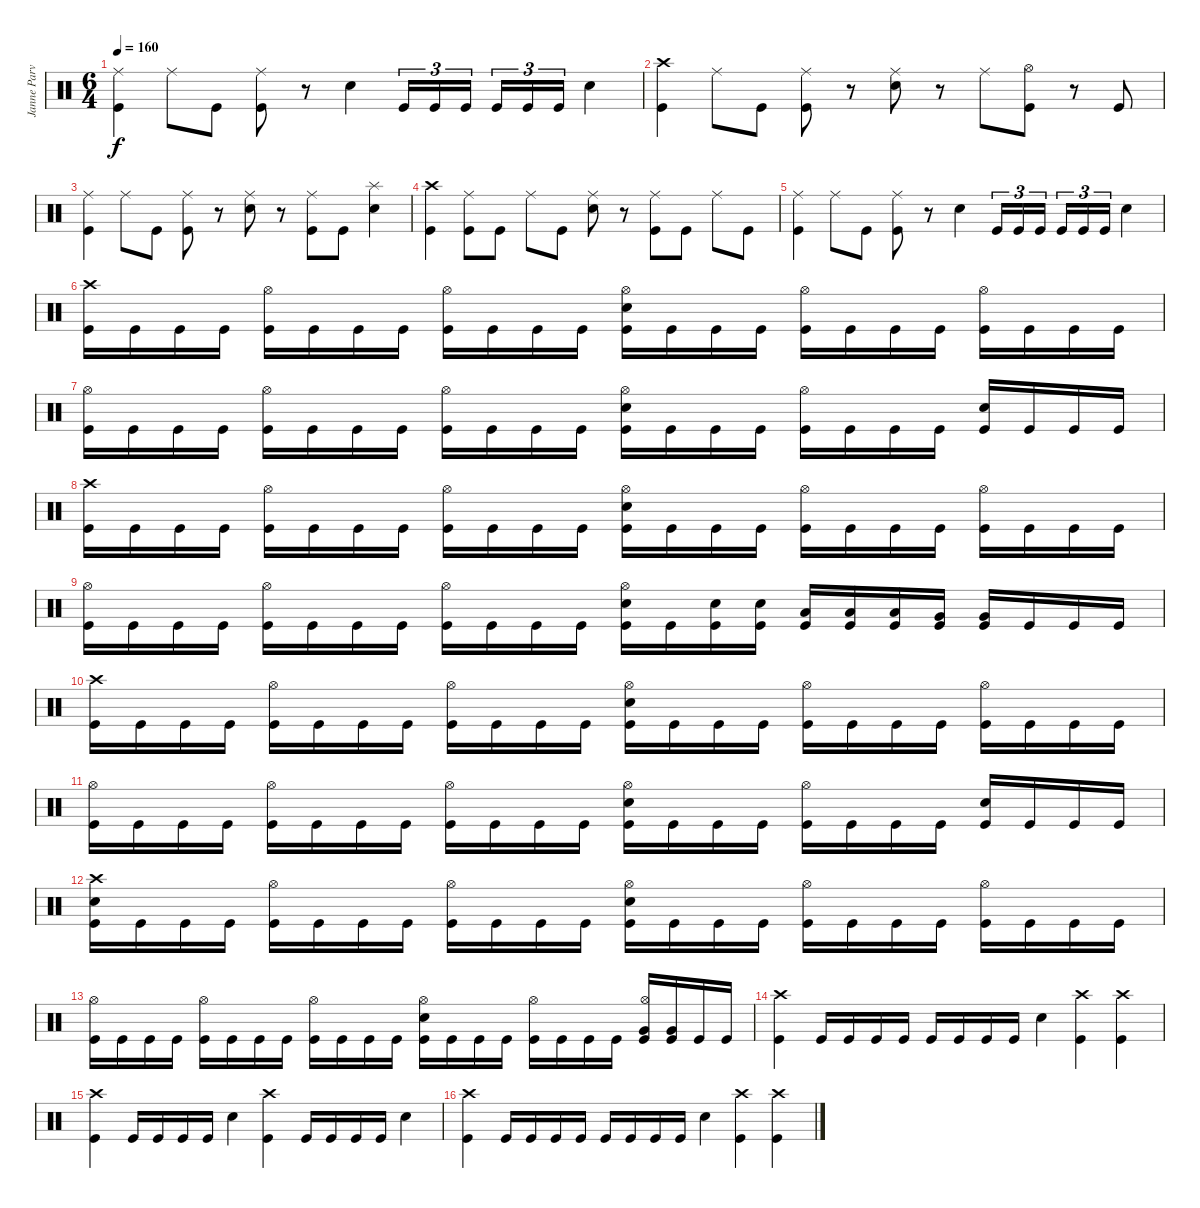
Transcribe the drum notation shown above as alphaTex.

\track ("Janne Parviainen" "Janne Parv") {instrument percussion}
\staff {score}
\articulation defaults
\ts (6 4)
\tempo 160
\clef neutral
\ks c
("Ride (middle)" "Kick (hit)").4{dy f} "Ride (middle)".8 "Kick (hit)".8 ("Ride (middle)" "Kick (hit)").8 r.8 "Electric Snare (hit)".4 "Kick (hit)".16{tu (3 2)} "Kick (hit)".16{tu (3 2)} "Kick (hit)".16{tu (3 2) beam splitsecondary} "Kick (hit)".16{tu (3 2)} "Kick (hit)".16{tu (3 2)} "Kick (hit)".16{tu (3 2)} "Electric Snare (hit)".4 |
("Crash high (hit)" "Kick (hit)").4 "Ride (middle)".8 "Kick (hit)".8 ("Ride (middle)" "Kick (hit)").8 r.8 ("Ride (middle)" "Electric Snare (hit)").8 r.8 "Ride (middle)".8 ("Hi-Hat (open)" "Kick (hit)").8 r.8 "Kick (hit)".8 |
("Ride (middle)" "Kick (hit)").4 "Ride (middle)".8 "Kick (hit)".8 ("Ride (middle)" "Kick (hit)").8 r.8 ("Ride (middle)" "Electric Snare (hit)").8 r.8 ("Ride (middle)" "Kick (hit)").8 "Kick (hit)".8 ("Splash (hit)" "Electric Snare (hit)").4 |
("Crash high (hit)" "Kick (hit)").4 ("Ride (middle)" "Kick (hit)").8 "Kick (hit)".8 "Ride (middle)".8 "Kick (hit)".8 ("Ride (middle)" "Electric Snare (hit)").8 r.8 ("Ride (middle)" "Kick (hit)").8 "Kick (hit)".8 "Ride (middle)".8 "Kick (hit)".8 |
("Ride (middle)" "Kick (hit)").4 "Ride (middle)".8 "Kick (hit)".8 ("Ride (middle)" "Kick (hit)").8 r.8 "Electric Snare (hit)".4 "Kick (hit)".16{tu (3 2)} "Kick (hit)".16{tu (3 2)} "Kick (hit)".16{tu (3 2) beam splitsecondary} "Kick (hit)".16{tu (3 2)} "Kick (hit)".16{tu (3 2)} "Kick (hit)".16{tu (3 2)} "Electric Snare (hit)".4 |
("Crash high (hit)" "Kick (hit)").16 "Kick (hit)".16 "Kick (hit)".16 "Kick (hit)".16 ("Hi-Hat (open)" "Kick (hit)").16 "Kick (hit)".16 "Kick (hit)".16 "Kick (hit)".16 ("Hi-Hat (open)" "Kick (hit)").16 "Kick (hit)".16 "Kick (hit)".16 "Kick (hit)".16 ("Hi-Hat (open)" "Electric Snare (hit)" "Kick (hit)").16 "Kick (hit)".16 "Kick (hit)".16 "Kick (hit)".16 ("Hi-Hat (open)" "Kick (hit)").16 "Kick (hit)".16 "Kick (hit)".16 "Kick (hit)".16 ("Hi-Hat (open)" "Kick (hit)").16 "Kick (hit)".16 "Kick (hit)".16 "Kick (hit)".16 |
("Hi-Hat (open)" "Kick (hit)").16 "Kick (hit)".16 "Kick (hit)".16 "Kick (hit)".16 ("Hi-Hat (open)" "Kick (hit)").16 "Kick (hit)".16 "Kick (hit)".16 "Kick (hit)".16 ("Hi-Hat (open)" "Kick (hit)").16 "Kick (hit)".16 "Kick (hit)".16 "Kick (hit)".16 ("Hi-Hat (open)" "Electric Snare (hit)" "Kick (hit)").16 "Kick (hit)".16 "Kick (hit)".16 "Kick (hit)".16 ("Hi-Hat (open)" "Kick (hit)").16 "Kick (hit)".16 "Kick (hit)".16 "Kick (hit)".16 ("Electric Snare (hit)" "Kick (hit)").16 "Kick (hit)".16 "Kick (hit)".16 "Kick (hit)".16 |
("Crash high (hit)" "Kick (hit)").16 "Kick (hit)".16 "Kick (hit)".16 "Kick (hit)".16 ("Hi-Hat (open)" "Kick (hit)").16 "Kick (hit)".16 "Kick (hit)".16 "Kick (hit)".16 ("Hi-Hat (open)" "Kick (hit)").16 "Kick (hit)".16 "Kick (hit)".16 "Kick (hit)".16 ("Hi-Hat (open)" "Electric Snare (hit)" "Kick (hit)").16 "Kick (hit)".16 "Kick (hit)".16 "Kick (hit)".16 ("Hi-Hat (open)" "Kick (hit)").16 "Kick (hit)".16 "Kick (hit)".16 "Kick (hit)".16 ("Hi-Hat (open)" "Kick (hit)").16 "Kick (hit)".16 "Kick (hit)".16 "Kick (hit)".16 |
("Hi-Hat (open)" "Kick (hit)").16 "Kick (hit)".16 "Kick (hit)".16 "Kick (hit)".16 ("Hi-Hat (open)" "Kick (hit)").16 "Kick (hit)".16 "Kick (hit)".16 "Kick (hit)".16 ("Hi-Hat (open)" "Kick (hit)").16 "Kick (hit)".16 "Kick (hit)".16 "Kick (hit)".16 ("Hi-Hat (open)" "Electric Snare (hit)" "Kick (hit)").16 "Kick (hit)".16 ("Electric Snare (hit)" "Kick (hit)").16 ("Electric Snare (hit)" "Kick (hit)").16 ("Low Tom (hit)" "Kick (hit)").16 ("Low Tom (hit)" "Kick (hit)").16 ("Low Tom (hit)" "Kick (hit)").16 ("Very Low Tom (hit)" "Kick (hit)").16 ("Very Low Tom (hit)" "Kick (hit)").16 "Kick (hit)".16 "Kick (hit)".16 "Kick (hit)".16 |
("Crash high (hit)" "Kick (hit)").16 "Kick (hit)".16 "Kick (hit)".16 "Kick (hit)".16 ("Hi-Hat (open)" "Kick (hit)").16 "Kick (hit)".16 "Kick (hit)".16 "Kick (hit)".16 ("Hi-Hat (open)" "Kick (hit)").16 "Kick (hit)".16 "Kick (hit)".16 "Kick (hit)".16 ("Hi-Hat (open)" "Electric Snare (hit)" "Kick (hit)").16 "Kick (hit)".16 "Kick (hit)".16 "Kick (hit)".16 ("Hi-Hat (open)" "Kick (hit)").16 "Kick (hit)".16 "Kick (hit)".16 "Kick (hit)".16 ("Hi-Hat (open)" "Kick (hit)").16 "Kick (hit)".16 "Kick (hit)".16 "Kick (hit)".16 |
("Hi-Hat (open)" "Kick (hit)").16 "Kick (hit)".16 "Kick (hit)".16 "Kick (hit)".16 ("Hi-Hat (open)" "Kick (hit)").16 "Kick (hit)".16 "Kick (hit)".16 "Kick (hit)".16 ("Hi-Hat (open)" "Kick (hit)").16 "Kick (hit)".16 "Kick (hit)".16 "Kick (hit)".16 ("Hi-Hat (open)" "Electric Snare (hit)" "Kick (hit)").16 "Kick (hit)".16 "Kick (hit)".16 "Kick (hit)".16 ("Hi-Hat (open)" "Kick (hit)").16 "Kick (hit)".16 "Kick (hit)".16 "Kick (hit)".16 ("Electric Snare (hit)" "Kick (hit)").16 "Kick (hit)".16 "Kick (hit)".16 "Kick (hit)".16 |
("Crash high (hit)" "Electric Snare (hit)" "Kick (hit)").16 "Kick (hit)".16 "Kick (hit)".16 "Kick (hit)".16 ("Hi-Hat (open)" "Kick (hit)").16 "Kick (hit)".16 "Kick (hit)".16 "Kick (hit)".16 ("Hi-Hat (open)" "Kick (hit)").16 "Kick (hit)".16 "Kick (hit)".16 "Kick (hit)".16 ("Hi-Hat (open)" "Electric Snare (hit)" "Kick (hit)").16 "Kick (hit)".16 "Kick (hit)".16 "Kick (hit)".16 ("Hi-Hat (open)" "Kick (hit)").16 "Kick (hit)".16 "Kick (hit)".16 "Kick (hit)".16 ("Hi-Hat (open)" "Kick (hit)").16 "Kick (hit)".16 "Kick (hit)".16 "Kick (hit)".16 |
("Hi-Hat (open)" "Kick (hit)").16 "Kick (hit)".16 "Kick (hit)".16 "Kick (hit)".16 ("Hi-Hat (open)" "Kick (hit)").16 "Kick (hit)".16 "Kick (hit)".16 "Kick (hit)".16 ("Hi-Hat (open)" "Kick (hit)").16 "Kick (hit)".16 "Kick (hit)".16 "Kick (hit)".16 ("Hi-Hat (open)" "Electric Snare (hit)" "Kick (hit)").16 "Kick (hit)".16 "Kick (hit)".16 "Kick (hit)".16 ("Hi-Hat (open)" "Kick (hit)").16 "Kick (hit)".16 "Kick (hit)".16 "Kick (hit)".16 ("Hi-Hat (open)" "Very Low Tom (hit)" "Kick (hit)").16 ("Very Low Tom (hit)" "Kick (hit)").16 "Kick (hit)".16 "Kick (hit)".16 |
("Crash high (hit)" "Kick (hit)").4 "Kick (hit)".16 "Kick (hit)".16 "Kick (hit)".16 "Kick (hit)".16 "Kick (hit)".16 "Kick (hit)".16 "Kick (hit)".16 "Kick (hit)".16 "Electric Snare (hit)".4 ("Crash high (hit)" "Kick (hit)").4 ("Crash high (hit)" "Kick (hit)").4 |
("Crash high (hit)" "Kick (hit)").4 "Kick (hit)".16 "Kick (hit)".16 "Kick (hit)".16 "Kick (hit)".16 "Electric Snare (hit)".4 ("Crash high (hit)" "Kick (hit)").4 "Kick (hit)".16 "Kick (hit)".16 "Kick (hit)".16 "Kick (hit)".16 "Electric Snare (hit)".4 |
("Crash high (hit)" "Kick (hit)").4 "Kick (hit)".16 "Kick (hit)".16 "Kick (hit)".16 "Kick (hit)".16 "Kick (hit)".16 "Kick (hit)".16 "Kick (hit)".16 "Kick (hit)".16 "Electric Snare (hit)".4 ("Crash high (hit)" "Kick (hit)").4 ("Crash high (hit)" "Kick (hit)").4
